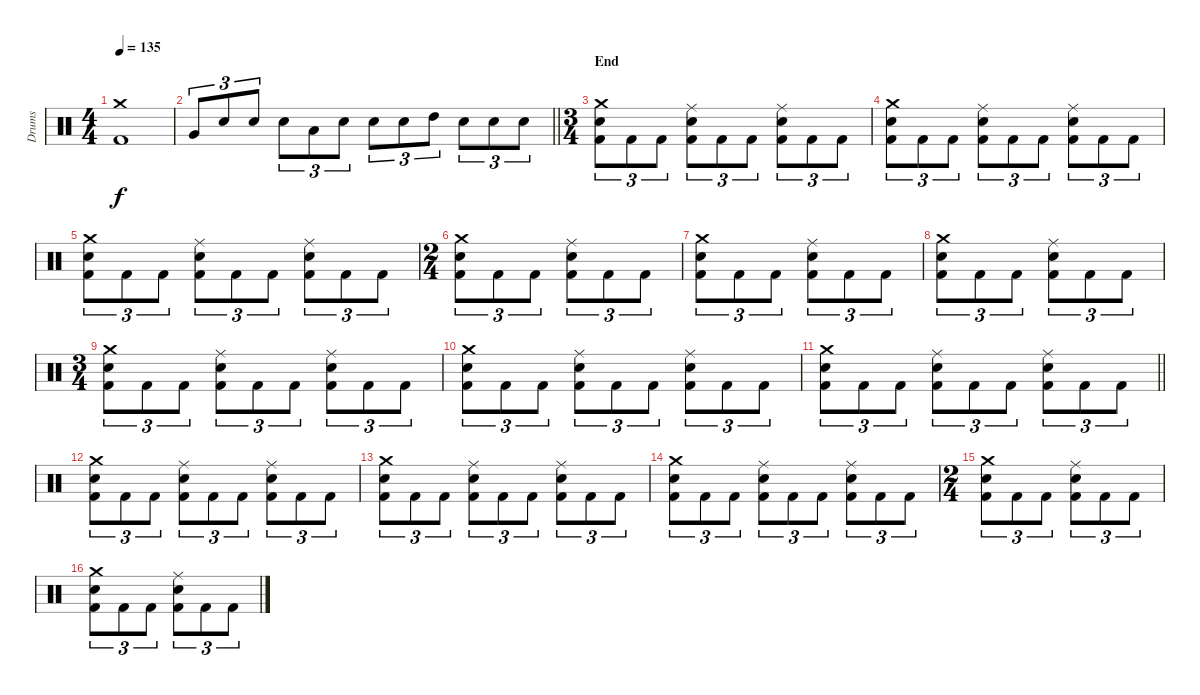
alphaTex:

\track ("Drums" "Drums") {instrument percussion}
\staff {score}
\articulation defaults
\ts (4 4)
\tempo 135
\clef neutral
\ks c
("Crash medium (hit)" "Kick (hit) 2").1{dy f} |
\barLineRight lightlight "Very Low Tom (hit)".8{tu (3 2)} "Snare (hit) 2".8{tu (3 2)} "Snare (hit) 2".8{tu (3 2)} "Snare (hit) 2".8{tu (3 2)} "Low Floor Tom (hit)".8{tu (3 2)} "Snare (hit) 2".8{tu (3 2)} "Snare (hit) 2".8{tu (3 2)} "Snare (hit) 2".8{tu (3 2)} "High Tom (hit)".8{tu (3 2)} "Snare (hit) 2".8{tu (3 2)} "Snare (hit) 2".8{tu (3 2)} "Snare (hit) 2".8{tu (3 2)}
|
\ts (3 4)
\section ("" "End")
("Crash medium (hit)" "Snare (hit) 2" "Kick (hit) 2").8{tu (3 2)} "Kick (hit) 2".8{tu (3 2)} "Kick (hit) 2".8{tu (3 2)} ("Ride (middle)" "Snare (hit) 2" "Kick (hit) 2").8{tu (3 2)} "Kick (hit) 2".8{tu (3 2)} "Kick (hit) 2".8{tu (3 2)} ("Ride (middle)" "Snare (hit) 2" "Kick (hit) 2").8{tu (3 2)} "Kick (hit) 2".8{tu (3 2)} "Kick (hit) 2".8{tu (3 2)} |
("Crash medium (hit)" "Snare (hit) 2" "Kick (hit) 2").8{tu (3 2)} "Kick (hit) 2".8{tu (3 2)} "Kick (hit) 2".8{tu (3 2)} ("Ride (middle)" "Snare (hit) 2" "Kick (hit) 2").8{tu (3 2)} "Kick (hit) 2".8{tu (3 2)} "Kick (hit) 2".8{tu (3 2)} ("Ride (middle)" "Snare (hit) 2" "Kick (hit) 2").8{tu (3 2)} "Kick (hit) 2".8{tu (3 2)} "Kick (hit) 2".8{tu (3 2)} |
("Crash medium (hit)" "Snare (hit) 2" "Kick (hit) 2").8{tu (3 2)} "Kick (hit) 2".8{tu (3 2)} "Kick (hit) 2".8{tu (3 2)} ("Ride (middle)" "Snare (hit) 2" "Kick (hit) 2").8{tu (3 2)} "Kick (hit) 2".8{tu (3 2)} "Kick (hit) 2".8{tu (3 2)} ("Ride (middle)" "Snare (hit) 2" "Kick (hit) 2").8{tu (3 2)} "Kick (hit) 2".8{tu (3 2)} "Kick (hit) 2".8{tu (3 2)} |
\ts (2 4)
("Crash medium (hit)" "Snare (hit) 2" "Kick (hit) 2").8{tu (3 2)} "Kick (hit) 2".8{tu (3 2)} "Kick (hit) 2".8{tu (3 2)} ("Ride (middle)" "Snare (hit) 2" "Kick (hit) 2").8{tu (3 2)} "Kick (hit) 2".8{tu (3 2)} "Kick (hit) 2".8{tu (3 2)} |
("Crash medium (hit)" "Snare (hit) 2" "Kick (hit) 2").8{tu (3 2)} "Kick (hit) 2".8{tu (3 2)} "Kick (hit) 2".8{tu (3 2)} ("Ride (middle)" "Snare (hit) 2" "Kick (hit) 2").8{tu (3 2)} "Kick (hit) 2".8{tu (3 2)} "Kick (hit) 2".8{tu (3 2)} |
("Crash medium (hit)" "Snare (hit) 2" "Kick (hit) 2").8{tu (3 2)} "Kick (hit) 2".8{tu (3 2)} "Kick (hit) 2".8{tu (3 2)} ("Ride (middle)" "Snare (hit) 2" "Kick (hit) 2").8{tu (3 2)} "Kick (hit) 2".8{tu (3 2)} "Kick (hit) 2".8{tu (3 2)} |
\ts (3 4)
("Crash medium (hit)" "Snare (hit) 2" "Kick (hit) 2").8{tu (3 2)} "Kick (hit) 2".8{tu (3 2)} "Kick (hit) 2".8{tu (3 2)} ("Ride (middle)" "Snare (hit) 2" "Kick (hit) 2").8{tu (3 2)} "Kick (hit) 2".8{tu (3 2)} "Kick (hit) 2".8{tu (3 2)} ("Ride (middle)" "Snare (hit) 2" "Kick (hit) 2").8{tu (3 2)} "Kick (hit) 2".8{tu (3 2)} "Kick (hit) 2".8{tu (3 2)} |
("Crash medium (hit)" "Snare (hit) 2" "Kick (hit) 2").8{tu (3 2)} "Kick (hit) 2".8{tu (3 2)} "Kick (hit) 2".8{tu (3 2)} ("Ride (middle)" "Snare (hit) 2" "Kick (hit) 2").8{tu (3 2)} "Kick (hit) 2".8{tu (3 2)} "Kick (hit) 2".8{tu (3 2)} ("Ride (middle)" "Snare (hit) 2" "Kick (hit) 2").8{tu (3 2)} "Kick (hit) 2".8{tu (3 2)} "Kick (hit) 2".8{tu (3 2)} |
\barLineRight lightlight
("Crash medium (hit)" "Snare (hit) 2" "Kick (hit) 2").8{tu (3 2)} "Kick (hit) 2".8{tu (3 2)} "Kick (hit) 2".8{tu (3 2)} ("Ride (middle)" "Snare (hit) 2" "Kick (hit) 2").8{tu (3 2)} "Kick (hit) 2".8{tu (3 2)} "Kick (hit) 2".8{tu (3 2)} ("Ride (middle)" "Snare (hit) 2" "Kick (hit) 2").8{tu (3 2)} "Kick (hit) 2".8{tu (3 2)} "Kick (hit) 2".8{tu (3 2)} |
("Crash medium (hit)" "Snare (hit) 2" "Kick (hit) 2").8{tu (3 2)} "Kick (hit) 2".8{tu (3 2)} "Kick (hit) 2".8{tu (3 2)} ("Ride (middle)" "Snare (hit) 2" "Kick (hit) 2").8{tu (3 2)} "Kick (hit) 2".8{tu (3 2)} "Kick (hit) 2".8{tu (3 2)} ("Ride (middle)" "Snare (hit) 2" "Kick (hit) 2").8{tu (3 2)} "Kick (hit) 2".8{tu (3 2)} "Kick (hit) 2".8{tu (3 2)} |
("Crash medium (hit)" "Snare (hit) 2" "Kick (hit) 2").8{tu (3 2)} "Kick (hit) 2".8{tu (3 2)} "Kick (hit) 2".8{tu (3 2)} ("Ride (middle)" "Snare (hit) 2" "Kick (hit) 2").8{tu (3 2)} "Kick (hit) 2".8{tu (3 2)} "Kick (hit) 2".8{tu (3 2)} ("Ride (middle)" "Snare (hit) 2" "Kick (hit) 2").8{tu (3 2)} "Kick (hit) 2".8{tu (3 2)} "Kick (hit) 2".8{tu (3 2)} |
("Crash medium (hit)" "Snare (hit) 2" "Kick (hit) 2").8{tu (3 2)} "Kick (hit) 2".8{tu (3 2)} "Kick (hit) 2".8{tu (3 2)} ("Ride (middle)" "Snare (hit) 2" "Kick (hit) 2").8{tu (3 2)} "Kick (hit) 2".8{tu (3 2)} "Kick (hit) 2".8{tu (3 2)} ("Ride (middle)" "Snare (hit) 2" "Kick (hit) 2").8{tu (3 2)} "Kick (hit) 2".8{tu (3 2)} "Kick (hit) 2".8{tu (3 2)} |
\ts (2 4)
("Crash medium (hit)" "Snare (hit) 2" "Kick (hit) 2").8{tu (3 2)} "Kick (hit) 2".8{tu (3 2)} "Kick (hit) 2".8{tu (3 2)} ("Ride (middle)" "Snare (hit) 2" "Kick (hit) 2").8{tu (3 2)} "Kick (hit) 2".8{tu (3 2)} "Kick (hit) 2".8{tu (3 2)} |
("Crash medium (hit)" "Snare (hit) 2" "Kick (hit) 2").8{tu (3 2)} "Kick (hit) 2".8{tu (3 2)} "Kick (hit) 2".8{tu (3 2)} ("Ride (middle)" "Snare (hit) 2" "Kick (hit) 2").8{tu (3 2)} "Kick (hit) 2".8{tu (3 2)} "Kick (hit) 2".8{tu (3 2)}
